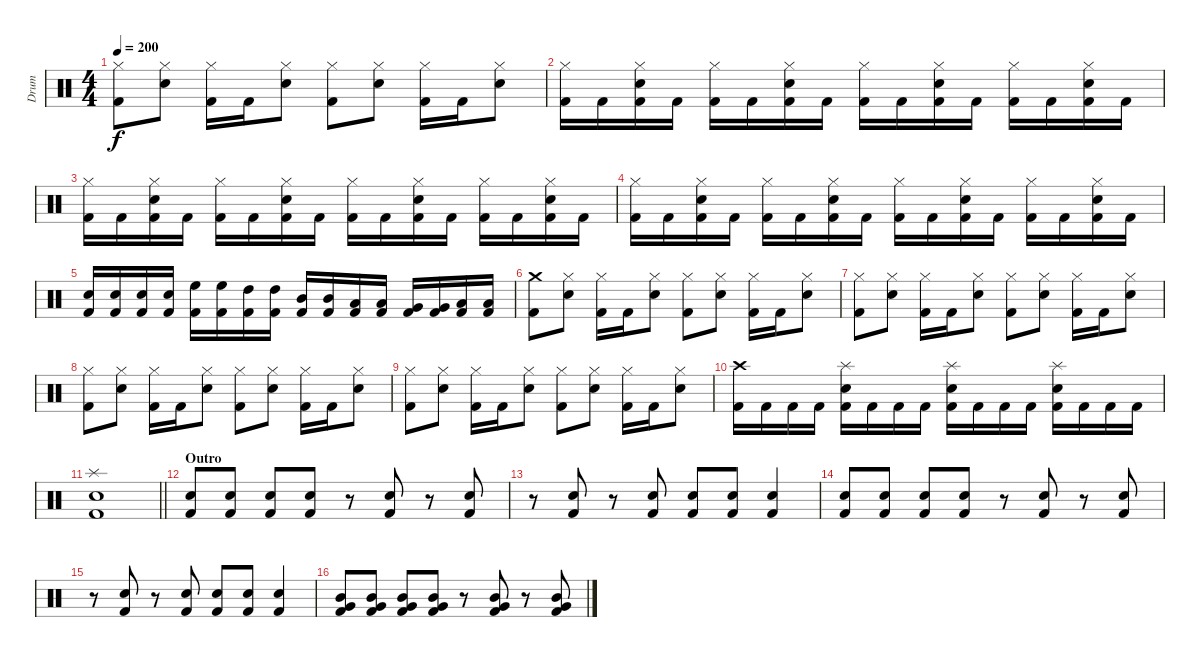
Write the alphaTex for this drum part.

\track ("Drum" "Drum") {instrument percussion}
\staff {score}
\articulation defaults
\ts (4 4)
\tempo 200
\clef neutral
\ks c
("Kick (hit) 2" "Hi-Hat (closed)").8{dy f} ("Snare (hit) 2" "Hi-Hat (closed)").8 ("Kick (hit) 2" "Hi-Hat (closed)").16 "Kick (hit) 2".16 ("Snare (hit) 2" "Hi-Hat (closed)").8 ("Kick (hit) 2" "Hi-Hat (closed)").8 ("Snare (hit) 2" "Hi-Hat (closed)").8 ("Kick (hit) 2" "Hi-Hat (closed)").16 "Kick (hit) 2".16 ("Snare (hit) 2" "Hi-Hat (closed)").8 |
("Kick (hit) 2" "Hi-Hat (closed)").16 "Kick (hit) 2".16 ("Kick (hit) 2" "Snare (hit) 2" "Hi-Hat (closed)").16 "Kick (hit) 2".16 ("Kick (hit) 2" "Hi-Hat (closed)").16 "Kick (hit) 2".16 ("Kick (hit) 2" "Snare (hit) 2" "Hi-Hat (closed)").16 "Kick (hit) 2".16 ("Kick (hit) 2" "Hi-Hat (closed)").16 "Kick (hit) 2".16 ("Kick (hit) 2" "Snare (hit) 2" "Hi-Hat (closed)").16 "Kick (hit) 2".16 ("Kick (hit) 2" "Hi-Hat (closed)").16 "Kick (hit) 2".16 ("Kick (hit) 2" "Snare (hit) 2" "Hi-Hat (closed)").16 "Kick (hit) 2".16 |
("Kick (hit) 2" "Hi-Hat (closed)").16 "Kick (hit) 2".16 ("Kick (hit) 2" "Snare (hit) 2" "Hi-Hat (closed)").16 "Kick (hit) 2".16 ("Kick (hit) 2" "Hi-Hat (closed)").16 "Kick (hit) 2".16 ("Kick (hit) 2" "Snare (hit) 2" "Hi-Hat (closed)").16 "Kick (hit) 2".16 ("Kick (hit) 2" "Hi-Hat (closed)").16 "Kick (hit) 2".16 ("Kick (hit) 2" "Snare (hit) 2" "Hi-Hat (closed)").16 "Kick (hit) 2".16 ("Kick (hit) 2" "Hi-Hat (closed)").16 "Kick (hit) 2".16 ("Kick (hit) 2" "Snare (hit) 2" "Hi-Hat (closed)").16 "Kick (hit) 2".16 |
("Kick (hit) 2" "Hi-Hat (closed)").16 "Kick (hit) 2".16 ("Kick (hit) 2" "Snare (hit) 2" "Hi-Hat (closed)").16 "Kick (hit) 2".16 ("Kick (hit) 2" "Hi-Hat (closed)").16 "Kick (hit) 2".16 ("Kick (hit) 2" "Snare (hit) 2" "Hi-Hat (closed)").16 "Kick (hit) 2".16 ("Kick (hit) 2" "Hi-Hat (closed)").16 "Kick (hit) 2".16 ("Kick (hit) 2" "Snare (hit) 2" "Hi-Hat (closed)").16 "Kick (hit) 2".16 ("Kick (hit) 2" "Hi-Hat (closed)").16 "Kick (hit) 2".16 ("Kick (hit) 2" "Snare (hit) 2" "Hi-Hat (closed)").16 "Kick (hit) 2".16 |
("Kick (hit) 2" "Snare (hit) 2").16 ("Kick (hit) 2" "Snare (hit) 2").16 ("Kick (hit) 2" "Snare (hit) 2").16 ("Kick (hit) 2" "Snare (hit) 2").16 ("Kick (hit) 2" "High Floor Tom (hit)").16 ("Kick (hit) 2" "High Floor Tom (hit)").16 ("Kick (hit) 2" "High Tom (hit)").16 ("Kick (hit) 2" "High Tom (hit)").16 ("Kick (hit) 2" "Mid Tom (hit)").16 ("Kick (hit) 2" "Mid Tom (hit)").16 ("Kick (hit) 2" "Low Tom (hit)").16 ("Kick (hit) 2" "Low Tom (hit)").16 ("Kick (hit) 2" "Very Low Tom (hit)").16 ("Kick (hit) 2" "Very Low Tom (hit)").16 ("Kick (hit) 2" "Low Floor Tom (hit)").16 ("Kick (hit) 2" "Low Floor Tom (hit)").16 |
("Kick (hit) 2" "Crash medium (hit)").8 ("Snare (hit) 2" "Hi-Hat (closed)").8 ("Kick (hit) 2" "Hi-Hat (closed)").16 "Kick (hit) 2".16 ("Snare (hit) 2" "Hi-Hat (closed)").8 ("Kick (hit) 2" "Hi-Hat (closed)").8 ("Snare (hit) 2" "Hi-Hat (closed)").8 ("Kick (hit) 2" "Hi-Hat (closed)").16 "Kick (hit) 2".16 ("Snare (hit) 2" "Hi-Hat (closed)").8 |
("Kick (hit) 2" "Hi-Hat (closed)").8 ("Snare (hit) 2" "Hi-Hat (closed)").8 ("Kick (hit) 2" "Hi-Hat (closed)").16 "Kick (hit) 2".16 ("Snare (hit) 2" "Hi-Hat (closed)").8 ("Kick (hit) 2" "Hi-Hat (closed)").8 ("Snare (hit) 2" "Hi-Hat (closed)").8 ("Kick (hit) 2" "Hi-Hat (closed)").16 "Kick (hit) 2".16 ("Snare (hit) 2" "Hi-Hat (closed)").8 |
("Kick (hit) 2" "Hi-Hat (closed)").8 ("Snare (hit) 2" "Hi-Hat (closed)").8 ("Kick (hit) 2" "Hi-Hat (closed)").16 "Kick (hit) 2".16 ("Snare (hit) 2" "Hi-Hat (closed)").8 ("Kick (hit) 2" "Hi-Hat (closed)").8 ("Snare (hit) 2" "Hi-Hat (closed)").8 ("Kick (hit) 2" "Hi-Hat (closed)").16 "Kick (hit) 2".16 ("Snare (hit) 2" "Hi-Hat (closed)").8 |
("Kick (hit) 2" "Hi-Hat (closed)").8 ("Snare (hit) 2" "Hi-Hat (closed)").8 ("Kick (hit) 2" "Hi-Hat (closed)").16 "Kick (hit) 2".16 ("Snare (hit) 2" "Hi-Hat (closed)").8 ("Kick (hit) 2" "Hi-Hat (closed)").8 ("Snare (hit) 2" "Hi-Hat (closed)").8 ("Kick (hit) 2" "Hi-Hat (closed)").16 "Kick (hit) 2".16 ("Snare (hit) 2" "Hi-Hat (closed)").8 |
("Kick (hit) 2" "Crash high (hit)").16 "Kick (hit) 2".16 "Kick (hit) 2".16 "Kick (hit) 2".16 ("Kick (hit) 2" "Snare (hit) 2" "Splash (hit)").16 "Kick (hit) 2".16 "Kick (hit) 2".16 "Kick (hit) 2".16 ("Kick (hit) 2" "Snare (hit) 2" "Splash (hit)").16 "Kick (hit) 2".16 "Kick (hit) 2".16 "Kick (hit) 2".16 ("Kick (hit) 2" "Snare (hit) 2" "Splash (hit)").16 "Kick (hit) 2".16 "Kick (hit) 2".16 "Kick (hit) 2".16 |
\barLineRight lightlight
("Kick (hit) 2" "Snare (hit) 2" "Splash (hit)").1 |
\section ("" "Outro")
("Kick (hit) 2" "Snare (hit) 2").8 ("Kick (hit) 2" "Snare (hit) 2").8 ("Kick (hit) 2" "Snare (hit) 2").8 ("Kick (hit) 2" "Snare (hit) 2").8 r.8 ("Kick (hit) 2" "Snare (hit) 2").8 r.8 ("Kick (hit) 2" "Snare (hit) 2").8 |
r.8 ("Kick (hit) 2" "Snare (hit) 2").8 r.8 ("Kick (hit) 2" "Snare (hit) 2").8 ("Kick (hit) 2" "Snare (hit) 2").8 ("Kick (hit) 2" "Snare (hit) 2").8 ("Kick (hit) 2" "Snare (hit) 2").4 |
("Kick (hit) 2" "Snare (hit) 2").8 ("Kick (hit) 2" "Snare (hit) 2").8 ("Kick (hit) 2" "Snare (hit) 2").8 ("Kick (hit) 2" "Snare (hit) 2").8 r.8 ("Kick (hit) 2" "Snare (hit) 2").8 r.8 ("Kick (hit) 2" "Snare (hit) 2").8 |
r.8 ("Kick (hit) 2" "Snare (hit) 2").8 r.8 ("Kick (hit) 2" "Snare (hit) 2").8 ("Kick (hit) 2" "Snare (hit) 2").8 ("Kick (hit) 2" "Snare (hit) 2").8 ("Kick (hit) 2" "Snare (hit) 2").4 |
("Kick (hit) 2" "Very Low Tom (hit)" "Mid Tom (hit)").8 ("Kick (hit) 2" "Very Low Tom (hit)" "Mid Tom (hit)").8 ("Kick (hit) 2" "Very Low Tom (hit)" "Mid Tom (hit)").8 ("Kick (hit) 2" "Very Low Tom (hit)" "Mid Tom (hit)").8 r.8 ("Kick (hit) 2" "Very Low Tom (hit)" "Mid Tom (hit)").8 r.8 ("Kick (hit) 2" "Very Low Tom (hit)" "Mid Tom (hit)").8
